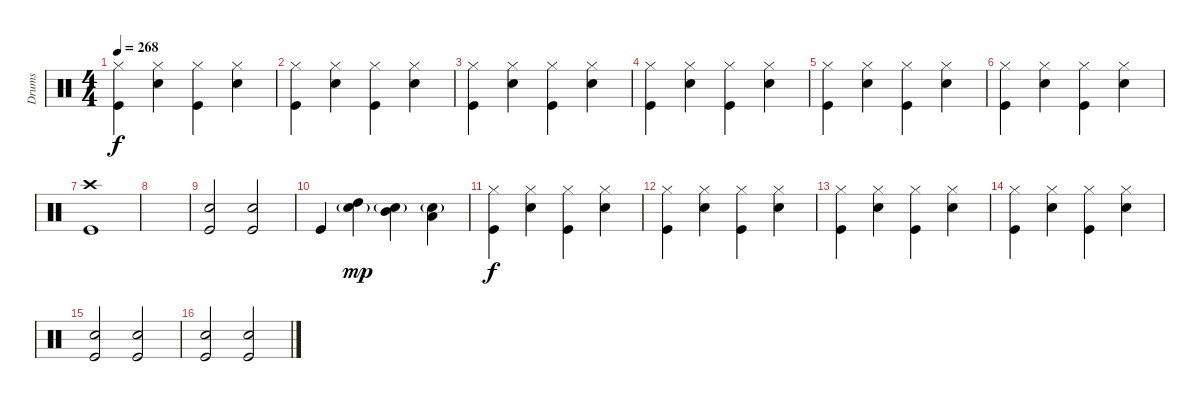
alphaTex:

\track ("Drums" "Drums") {instrument percussion}
\staff {score}
\articulation defaults
\ts (4 4)
\tempo 268
\clef neutral
\ks c
("Hi-Hat (closed)" "Kick (hit)").4{dy f} ("Hi-Hat (closed)" "Electric Snare (hit)").4 ("Hi-Hat (closed)" "Kick (hit)").4 ("Hi-Hat (closed)" "Electric Snare (hit)").4 |
("Hi-Hat (closed)" "Kick (hit)").4 ("Hi-Hat (closed)" "Electric Snare (hit)").4 ("Hi-Hat (closed)" "Kick (hit)").4 ("Hi-Hat (closed)" "Electric Snare (hit)").4 |
("Hi-Hat (closed)" "Kick (hit)").4 ("Hi-Hat (closed)" "Electric Snare (hit)").4 ("Hi-Hat (closed)" "Kick (hit)").4 ("Hi-Hat (closed)" "Electric Snare (hit)").4 |
("Hi-Hat (closed)" "Kick (hit)").4 ("Hi-Hat (closed)" "Electric Snare (hit)").4 ("Hi-Hat (closed)" "Kick (hit)").4 ("Hi-Hat (closed)" "Electric Snare (hit)").4 |
("Hi-Hat (closed)" "Kick (hit)").4 ("Hi-Hat (closed)" "Electric Snare (hit)").4 ("Hi-Hat (closed)" "Kick (hit)").4 ("Hi-Hat (closed)" "Electric Snare (hit)").4 |
("Hi-Hat (closed)" "Kick (hit)").4 ("Hi-Hat (closed)" "Electric Snare (hit)").4 ("Hi-Hat (closed)" "Kick (hit)").4 ("Hi-Hat (closed)" "Electric Snare (hit)").4 |
("Crash high (hit)" "Kick (hit)").1 |
|
("Electric Snare (hit)" "Kick (hit)").2 ("Electric Snare (hit)" "Kick (hit)").2 |
"Kick (hit)".4 ("High Tom (hit)" "Electric Snare (hit)"{g}).4{dy mp} ("Mid Tom (hit)" "Electric Snare (hit)"{g}).4 ("Low Tom (hit)" "Electric Snare (hit)"{g}).4 |
("Hi-Hat (closed)" "Kick (hit)").4{dy f} ("Hi-Hat (closed)" "Electric Snare (hit)").4 ("Hi-Hat (closed)" "Kick (hit)").4 ("Hi-Hat (closed)" "Electric Snare (hit)").4 |
("Hi-Hat (closed)" "Kick (hit)").4 ("Hi-Hat (closed)" "Electric Snare (hit)").4 ("Hi-Hat (closed)" "Kick (hit)").4 ("Hi-Hat (closed)" "Electric Snare (hit)").4 |
("Hi-Hat (closed)" "Kick (hit)").4 ("Hi-Hat (closed)" "Electric Snare (hit)").4 ("Hi-Hat (closed)" "Kick (hit)").4 ("Hi-Hat (closed)" "Electric Snare (hit)").4 |
("Hi-Hat (closed)" "Kick (hit)").4 ("Hi-Hat (closed)" "Electric Snare (hit)").4 ("Hi-Hat (closed)" "Kick (hit)").4 ("Hi-Hat (closed)" "Electric Snare (hit)").4 |
("Electric Snare (hit)" "Kick (hit)").2 ("Electric Snare (hit)" "Kick (hit)").2 |
("Electric Snare (hit)" "Kick (hit)").2 ("Electric Snare (hit)" "Kick (hit)").2
